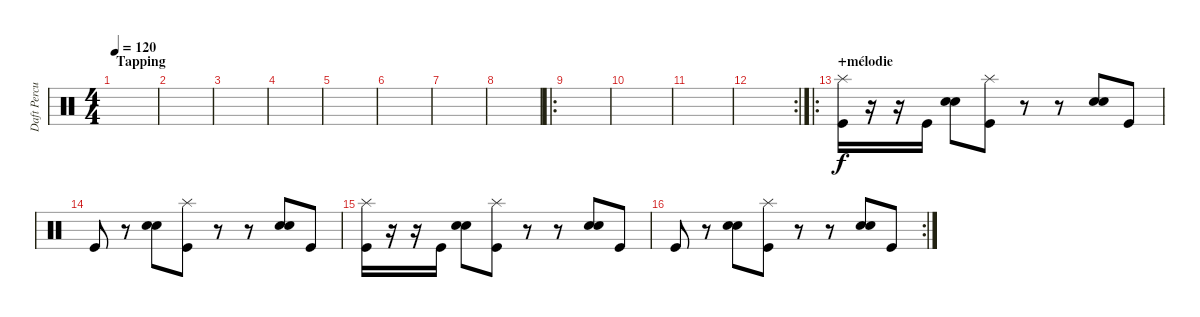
\track ("Daft Percussion 1" "Daft Percu") {instrument percussion}
\staff {score}
\articulation defaults
\ts (4 4)
\section ("" "Tapping")
\tempo 120
\clef neutral
\ks c
|
|
|
|
|
|
|
|
\ro
|
|
|
\rc 2
|
\ro
\section ("" "+mélodie")
("Splash (hit)" "Kick (hit)").16 r.16 r.16 "Kick (hit)".16 ("Hand Clap (hit)" "Electric Snare (hit)").8 ("Splash (hit)" "Kick (hit)").8 r.8 r.8 ("Hand Clap (hit)" "Electric Snare (hit)").8 "Kick (hit)".8 |
"Kick (hit)".8 r.8 ("Hand Clap (hit)" "Electric Snare (hit)").8 ("Splash (hit)" "Kick (hit)").8 r.8 r.8 ("Hand Clap (hit)" "Electric Snare (hit)").8 "Kick (hit)".8 |
("Splash (hit)" "Kick (hit)").16 r.16 r.16 "Kick (hit)".16 ("Hand Clap (hit)" "Electric Snare (hit)").8 ("Splash (hit)" "Kick (hit)").8 r.8 r.8 ("Hand Clap (hit)" "Electric Snare (hit)").8 "Kick (hit)".8 |
\rc 2 "Kick (hit)".8
r.8 ("Hand Clap (hit)" "Electric Snare (hit)").8 ("Splash (hit)" "Kick (hit)").8 r.8 r.8 ("Hand Clap (hit)" "Electric Snare (hit)").8 "Kick (hit)".8
